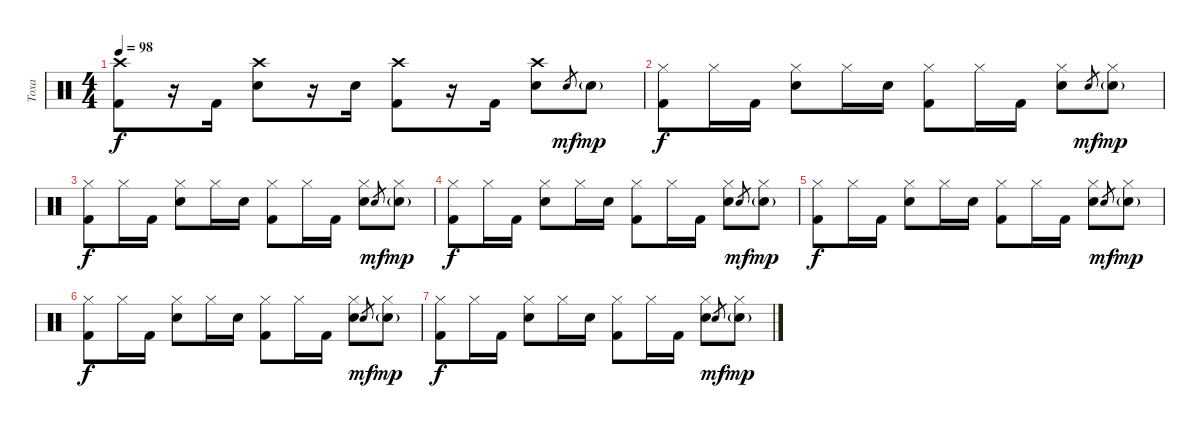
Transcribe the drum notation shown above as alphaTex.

\track ("Toxa" "Toxa") {instrument percussion}
\staff {score}
\articulation defaults
\ts (4 4)
\tempo 98
\clef neutral
\ks c
("Crash high (hit)" "Kick (hit) 2").8{dy f} r.16 "Kick (hit) 2".16 ("Crash high (hit)" "Electric Snare (hit)").8 r.16 "Electric Snare (hit)".16 ("Crash high (hit)" "Kick (hit) 2").8 r.16 "Kick (hit) 2".16 ("Crash high (hit)" "Electric Snare (hit)").8 "Electric Snare (hit)".8{gr dy mf} "Electric Snare (hit)"{g}.8{dy mp} |
("Hi-Hat (closed)" "Kick (hit) 2").8{dy f} "Hi-Hat (closed)".16 "Kick (hit) 2".16 ("Hi-Hat (closed)" "Electric Snare (hit)").8 "Hi-Hat (closed)".16 "Electric Snare (hit)".16 ("Hi-Hat (closed)" "Kick (hit) 2").8 "Hi-Hat (closed)".16 "Kick (hit) 2".16 ("Hi-Hat (closed)" "Electric Snare (hit)").8 "Electric Snare (hit)".8{gr dy mf} ("Hi-Hat (closed)" "Electric Snare (hit)"{g}).8{dy mp} |
("Hi-Hat (closed)" "Kick (hit) 2").8{dy f} "Hi-Hat (closed)".16 "Kick (hit) 2".16 ("Hi-Hat (closed)" "Electric Snare (hit)").8 "Hi-Hat (closed)".16 "Electric Snare (hit)".16 ("Hi-Hat (closed)" "Kick (hit) 2").8 "Hi-Hat (closed)".16 "Kick (hit) 2".16 ("Hi-Hat (closed)" "Electric Snare (hit)").8 "Electric Snare (hit)".8{gr dy mf} ("Hi-Hat (closed)" "Electric Snare (hit)"{g}).8{dy mp} |
("Hi-Hat (closed)" "Kick (hit) 2").8{dy f} "Hi-Hat (closed)".16 "Kick (hit) 2".16 ("Hi-Hat (closed)" "Electric Snare (hit)").8 "Hi-Hat (closed)".16 "Electric Snare (hit)".16 ("Hi-Hat (closed)" "Kick (hit) 2").8 "Hi-Hat (closed)".16 "Kick (hit) 2".16 ("Hi-Hat (closed)" "Electric Snare (hit)").8 "Electric Snare (hit)".8{gr dy mf} ("Hi-Hat (closed)" "Electric Snare (hit)"{g}).8{dy mp} |
("Hi-Hat (closed)" "Kick (hit) 2").8{dy f} "Hi-Hat (closed)".16 "Kick (hit) 2".16 ("Hi-Hat (closed)" "Electric Snare (hit)").8 "Hi-Hat (closed)".16 "Electric Snare (hit)".16 ("Hi-Hat (closed)" "Kick (hit) 2").8 "Hi-Hat (closed)".16 "Kick (hit) 2".16 ("Hi-Hat (closed)" "Electric Snare (hit)").8 "Electric Snare (hit)".8{gr dy mf} ("Hi-Hat (closed)" "Electric Snare (hit)"{g}).8{dy mp} |
("Hi-Hat (closed)" "Kick (hit) 2").8{dy f} "Hi-Hat (closed)".16 "Kick (hit) 2".16 ("Hi-Hat (closed)" "Electric Snare (hit)").8 "Hi-Hat (closed)".16 "Electric Snare (hit)".16 ("Hi-Hat (closed)" "Kick (hit) 2").8 "Hi-Hat (closed)".16 "Kick (hit) 2".16 ("Hi-Hat (closed)" "Electric Snare (hit)").8 "Electric Snare (hit)".8{gr dy mf} ("Hi-Hat (closed)" "Electric Snare (hit)"{g}).8{dy mp} |
("Hi-Hat (closed)" "Kick (hit) 2").8{dy f} "Hi-Hat (closed)".16 "Kick (hit) 2".16 ("Hi-Hat (closed)" "Electric Snare (hit)").8 "Hi-Hat (closed)".16 "Electric Snare (hit)".16 ("Hi-Hat (closed)" "Kick (hit) 2").8 "Hi-Hat (closed)".16 "Kick (hit) 2".16 ("Hi-Hat (closed)" "Electric Snare (hit)").8 "Electric Snare (hit)".8{gr dy mf} ("Hi-Hat (closed)" "Electric Snare (hit)"{g}).8{dy mp}
